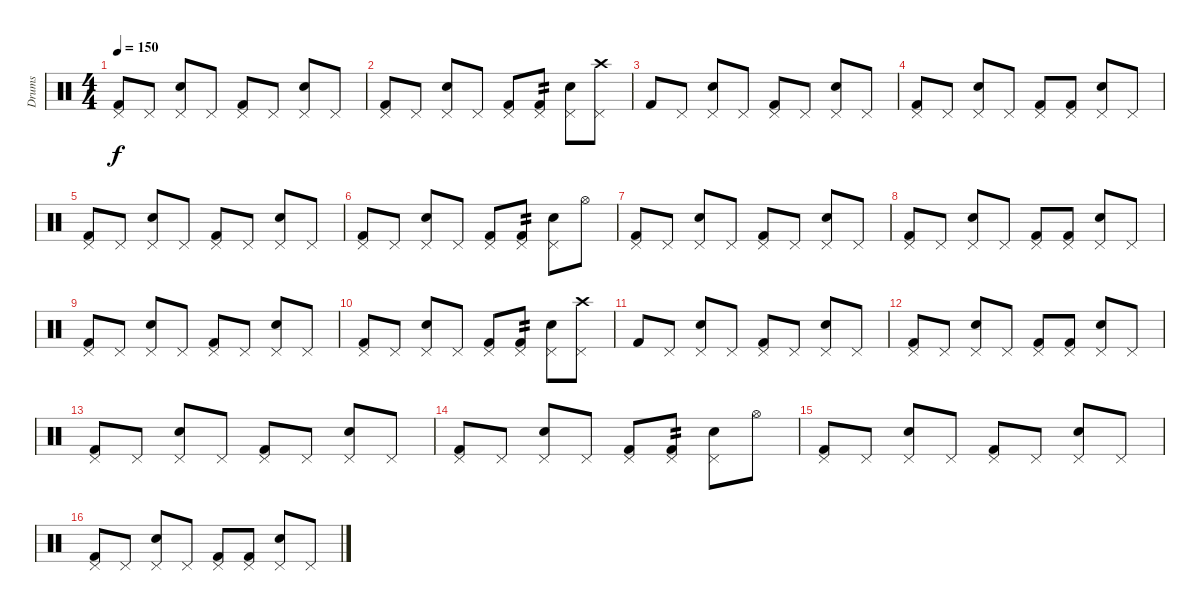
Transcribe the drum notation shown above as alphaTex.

\track ("Drums" "Drums") {instrument percussion}
\staff {score}
\articulation defaults
\ts (4 4)
\tempo 150
\clef neutral
\ks c
("Pedal Hi-Hat (hit)" "Kick (hit) 2").8{dy f} "Pedal Hi-Hat (hit)".8 ("Pedal Hi-Hat (hit)" "Snare (hit) 2").8 "Pedal Hi-Hat (hit)".8 ("Pedal Hi-Hat (hit)" "Kick (hit) 2").8 "Pedal Hi-Hat (hit)".8 ("Pedal Hi-Hat (hit)" "Snare (hit) 2").8 "Pedal Hi-Hat (hit)".8 |
("Pedal Hi-Hat (hit)" "Kick (hit) 2").8 "Pedal Hi-Hat (hit)".8 ("Pedal Hi-Hat (hit)" "Snare (hit) 2").8 "Pedal Hi-Hat (hit)".8 ("Pedal Hi-Hat (hit)" "Kick (hit) 2").8 ("Pedal Hi-Hat (hit)" "Kick (hit) 2").8{tp 2} ("Pedal Hi-Hat (hit)" "Snare (hit) 2").8 ("Crash high (hit)" "Pedal Hi-Hat (hit)").8 |
"Kick (hit) 2".8 "Pedal Hi-Hat (hit)".8 ("Pedal Hi-Hat (hit)" "Snare (hit) 2").8 "Pedal Hi-Hat (hit)".8 ("Pedal Hi-Hat (hit)" "Kick (hit) 2").8 "Pedal Hi-Hat (hit)".8 ("Pedal Hi-Hat (hit)" "Snare (hit) 2").8 "Pedal Hi-Hat (hit)".8 |
("Pedal Hi-Hat (hit)" "Kick (hit) 2").8 "Pedal Hi-Hat (hit)".8 ("Pedal Hi-Hat (hit)" "Snare (hit) 2").8 "Pedal Hi-Hat (hit)".8 ("Pedal Hi-Hat (hit)" "Kick (hit) 2").8 ("Pedal Hi-Hat (hit)" "Kick (hit) 2").8 ("Pedal Hi-Hat (hit)" "Snare (hit) 2").8 "Pedal Hi-Hat (hit)".8 |
("Pedal Hi-Hat (hit)" "Kick (hit) 2").8 "Pedal Hi-Hat (hit)".8 ("Pedal Hi-Hat (hit)" "Snare (hit) 2").8 "Pedal Hi-Hat (hit)".8 ("Pedal Hi-Hat (hit)" "Kick (hit) 2").8 "Pedal Hi-Hat (hit)".8 ("Pedal Hi-Hat (hit)" "Snare (hit) 2").8 "Pedal Hi-Hat (hit)".8 |
("Pedal Hi-Hat (hit)" "Kick (hit) 2").8 "Pedal Hi-Hat (hit)".8 ("Pedal Hi-Hat (hit)" "Snare (hit) 2").8 "Pedal Hi-Hat (hit)".8 ("Pedal Hi-Hat (hit)" "Kick (hit) 2").8 ("Pedal Hi-Hat (hit)" "Kick (hit) 2").8{tp 2} ("Pedal Hi-Hat (hit)" "Snare (hit) 2").8 "Hi-Hat (open)".8 |
("Pedal Hi-Hat (hit)" "Kick (hit) 2").8 "Pedal Hi-Hat (hit)".8 ("Pedal Hi-Hat (hit)" "Snare (hit) 2").8 "Pedal Hi-Hat (hit)".8 ("Pedal Hi-Hat (hit)" "Kick (hit) 2").8 "Pedal Hi-Hat (hit)".8 ("Pedal Hi-Hat (hit)" "Snare (hit) 2").8 "Pedal Hi-Hat (hit)".8 |
("Pedal Hi-Hat (hit)" "Kick (hit) 2").8 "Pedal Hi-Hat (hit)".8 ("Pedal Hi-Hat (hit)" "Snare (hit) 2").8 "Pedal Hi-Hat (hit)".8 ("Pedal Hi-Hat (hit)" "Kick (hit) 2").8 ("Pedal Hi-Hat (hit)" "Kick (hit) 2").8 ("Pedal Hi-Hat (hit)" "Snare (hit) 2").8 "Pedal Hi-Hat (hit)".8 |
("Pedal Hi-Hat (hit)" "Kick (hit) 2").8 "Pedal Hi-Hat (hit)".8 ("Pedal Hi-Hat (hit)" "Snare (hit) 2").8 "Pedal Hi-Hat (hit)".8 ("Pedal Hi-Hat (hit)" "Kick (hit) 2").8 "Pedal Hi-Hat (hit)".8 ("Pedal Hi-Hat (hit)" "Snare (hit) 2").8 "Pedal Hi-Hat (hit)".8 |
("Pedal Hi-Hat (hit)" "Kick (hit) 2").8 "Pedal Hi-Hat (hit)".8 ("Pedal Hi-Hat (hit)" "Snare (hit) 2").8 "Pedal Hi-Hat (hit)".8 ("Pedal Hi-Hat (hit)" "Kick (hit) 2").8 ("Pedal Hi-Hat (hit)" "Kick (hit) 2").8{tp 2} ("Pedal Hi-Hat (hit)" "Snare (hit) 2").8 ("Crash high (hit)" "Pedal Hi-Hat (hit)").8 |
"Kick (hit) 2".8 "Pedal Hi-Hat (hit)".8 ("Pedal Hi-Hat (hit)" "Snare (hit) 2").8 "Pedal Hi-Hat (hit)".8 ("Pedal Hi-Hat (hit)" "Kick (hit) 2").8 "Pedal Hi-Hat (hit)".8 ("Pedal Hi-Hat (hit)" "Snare (hit) 2").8 "Pedal Hi-Hat (hit)".8 |
("Pedal Hi-Hat (hit)" "Kick (hit) 2").8 "Pedal Hi-Hat (hit)".8 ("Pedal Hi-Hat (hit)" "Snare (hit) 2").8 "Pedal Hi-Hat (hit)".8 ("Pedal Hi-Hat (hit)" "Kick (hit) 2").8 ("Pedal Hi-Hat (hit)" "Kick (hit) 2").8 ("Pedal Hi-Hat (hit)" "Snare (hit) 2").8 "Pedal Hi-Hat (hit)".8 |
("Pedal Hi-Hat (hit)" "Kick (hit) 2").8 "Pedal Hi-Hat (hit)".8 ("Pedal Hi-Hat (hit)" "Snare (hit) 2").8 "Pedal Hi-Hat (hit)".8 ("Pedal Hi-Hat (hit)" "Kick (hit) 2").8 "Pedal Hi-Hat (hit)".8 ("Pedal Hi-Hat (hit)" "Snare (hit) 2").8 "Pedal Hi-Hat (hit)".8 |
("Pedal Hi-Hat (hit)" "Kick (hit) 2").8 "Pedal Hi-Hat (hit)".8 ("Pedal Hi-Hat (hit)" "Snare (hit) 2").8 "Pedal Hi-Hat (hit)".8 ("Pedal Hi-Hat (hit)" "Kick (hit) 2").8 ("Pedal Hi-Hat (hit)" "Kick (hit) 2").8{tp 2} ("Pedal Hi-Hat (hit)" "Snare (hit) 2").8 "Hi-Hat (open)".8 |
("Pedal Hi-Hat (hit)" "Kick (hit) 2").8 "Pedal Hi-Hat (hit)".8 ("Pedal Hi-Hat (hit)" "Snare (hit) 2").8 "Pedal Hi-Hat (hit)".8 ("Pedal Hi-Hat (hit)" "Kick (hit) 2").8 "Pedal Hi-Hat (hit)".8 ("Pedal Hi-Hat (hit)" "Snare (hit) 2").8 "Pedal Hi-Hat (hit)".8 |
("Pedal Hi-Hat (hit)" "Kick (hit) 2").8 "Pedal Hi-Hat (hit)".8 ("Pedal Hi-Hat (hit)" "Snare (hit) 2").8 "Pedal Hi-Hat (hit)".8 ("Pedal Hi-Hat (hit)" "Kick (hit) 2").8 ("Pedal Hi-Hat (hit)" "Kick (hit) 2").8 ("Pedal Hi-Hat (hit)" "Snare (hit) 2").8 "Pedal Hi-Hat (hit)".8
